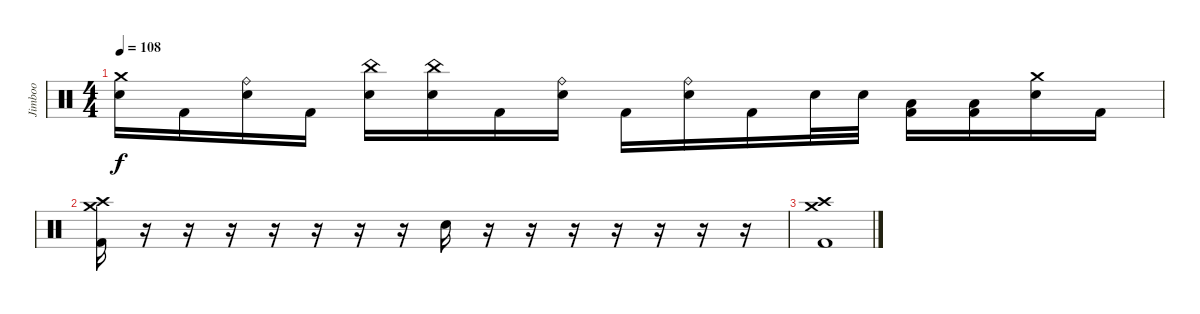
\track ("Jimboo" "Jimboo") {instrument percussion}
\staff
\articulation defaults
\ts (4 4)
\tempo 108
\clef neutral
\ks c
("Electric Snare (hit)" "Crash medium (hit)").16{dy f} "Kick (hit) 2".16 ("Electric Snare (hit)" "Ride (bell)").16 "Kick (hit) 2".16 ("Electric Snare (hit)" "China (hit)").16 ("Electric Snare (hit)" "China (hit)").16 "Kick (hit) 2".16 ("Electric Snare (hit)" "Ride (bell)").16 "Kick (hit) 2".16 ("Electric Snare (hit)" "Ride (bell)").16 "Kick (hit) 2".16 "Electric Snare (hit)".32 "Electric Snare (hit)".32 ("Kick (hit) 2" "Low Tom (hit)").16 ("Kick (hit) 2" "Low Floor Tom (hit)").16 ("Electric Snare (hit)" "Crash medium (hit)").16 "Kick (hit) 2".16 |
("Kick (hit) 2" "Crash medium (hit)" "Crash high (hit)").16 r.16 r.16 r.16 r.16 r.16 r.16 r.16 "Electric Snare (hit)".16 r.16 r.16 r.16 r.16 r.16 r.16 r.16 |
("Kick (hit) 2" "Crash medium (hit)" "Crash high (hit)").1
